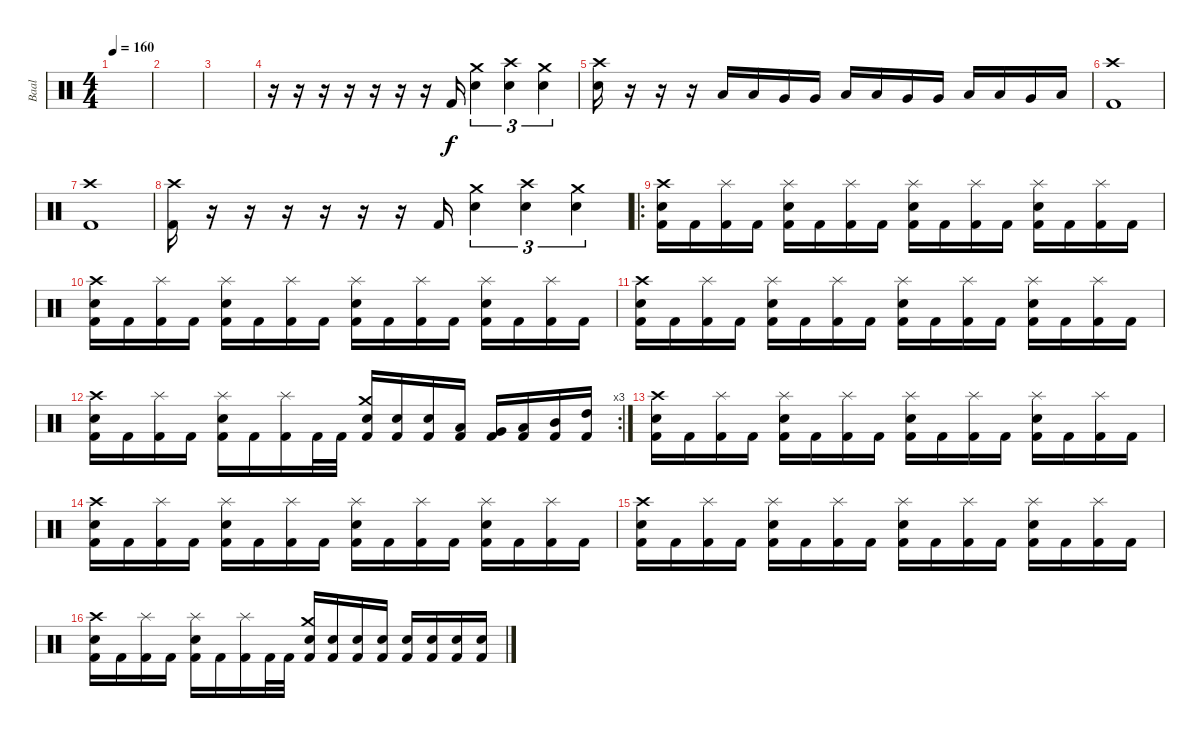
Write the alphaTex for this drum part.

\track ("Baal" "Baal") {instrument percussion}
\staff {score}
\articulation defaults
\ts (4 4)
\tempo 160
\clef neutral
\ks c
|
|
|
r.16 r.16 r.16 r.16 r.16 r.16 r.16 "Kick (hit) 2".16 ("Crash medium (hit)" "Electric Snare (hit)").4{tu (3 2)} ("Crash high (hit)" "Electric Snare (hit)").4{tu (3 2)} ("Crash medium (hit)" "Electric Snare (hit)").4{tu (3 2)} |
("Crash high (hit)" "Electric Snare (hit)").16 r.16 r.16 r.16 "Low Floor Tom (hit)".16 "Low Floor Tom (hit)".16 "Very Low Tom (hit)".16 "Very Low Tom (hit)".16 "Low Tom (hit)".16 "Low Tom (hit)".16 "Very Low Tom (hit)".16 "Very Low Tom (hit)".16 "Low Floor Tom (hit)".16 "Low Floor Tom (hit)".16 "Very Low Tom (hit)".16 "Low Tom (hit)".16 |
("Crash high (hit)" "Kick (hit) 2").1 |
("Crash high (hit)" "Kick (hit) 2").1 |
("Crash high (hit)" "Kick (hit) 2").16 r.16 r.16 r.16 r.16 r.16 r.16 "Kick (hit) 2".16 ("Crash medium (hit)" "Electric Snare (hit)").4{tu (3 2)} ("Crash high (hit)" "Electric Snare (hit)").4{tu (3 2)} ("Crash medium (hit)" "Electric Snare (hit)").4{tu (3 2)} |
\ro
("Crash high (hit)" "Electric Snare (hit)" "Kick (hit) 2").16 "Kick (hit) 2".16 ("Splash (hit)" "Kick (hit) 2").16 "Kick (hit) 2".16 ("Splash (hit)" "Electric Snare (hit)" "Kick (hit) 2").16 "Kick (hit) 2".16 ("Splash (hit)" "Kick (hit) 2").16 "Kick (hit) 2".16 ("Splash (hit)" "Electric Snare (hit)" "Kick (hit) 2").16 "Kick (hit) 2".16 ("Splash (hit)" "Kick (hit) 2").16 "Kick (hit) 2".16 ("Splash (hit)" "Electric Snare (hit)" "Kick (hit) 2").16 "Kick (hit) 2".16 ("Splash (hit)" "Kick (hit) 2").16 "Kick (hit) 2".16 |
("Crash high (hit)" "Electric Snare (hit)" "Kick (hit) 2").16 "Kick (hit) 2".16 ("Splash (hit)" "Kick (hit) 2").16 "Kick (hit) 2".16 ("Splash (hit)" "Electric Snare (hit)" "Kick (hit) 2").16 "Kick (hit) 2".16 ("Splash (hit)" "Kick (hit) 2").16 "Kick (hit) 2".16 ("Splash (hit)" "Electric Snare (hit)" "Kick (hit) 2").16 "Kick (hit) 2".16 ("Splash (hit)" "Kick (hit) 2").16 "Kick (hit) 2".16 ("Splash (hit)" "Electric Snare (hit)" "Kick (hit) 2").16 "Kick (hit) 2".16 ("Splash (hit)" "Kick (hit) 2").16 "Kick (hit) 2".16 |
("Crash high (hit)" "Electric Snare (hit)" "Kick (hit) 2").16 "Kick (hit) 2".16 ("Splash (hit)" "Kick (hit) 2").16 "Kick (hit) 2".16 ("Splash (hit)" "Electric Snare (hit)" "Kick (hit) 2").16 "Kick (hit) 2".16 ("Splash (hit)" "Kick (hit) 2").16 "Kick (hit) 2".16 ("Splash (hit)" "Electric Snare (hit)" "Kick (hit) 2").16 "Kick (hit) 2".16 ("Splash (hit)" "Kick (hit) 2").16 "Kick (hit) 2".16 ("Splash (hit)" "Electric Snare (hit)" "Kick (hit) 2").16 "Kick (hit) 2".16 ("Splash (hit)" "Kick (hit) 2").16 "Kick (hit) 2".16 |
\rc 3
("Crash high (hit)" "Electric Snare (hit)" "Kick (hit) 2").16 "Kick (hit) 2".16 ("Splash (hit)" "Kick (hit) 2").16 "Kick (hit) 2".16 ("Splash (hit)" "Electric Snare (hit)" "Kick (hit) 2").16 "Kick (hit) 2".16 ("Splash (hit)" "Kick (hit) 2").16 "Kick (hit) 2".32 "Kick (hit) 2".32 ("Crash medium (hit)" "Electric Snare (hit)" "Kick (hit) 2").16 ("Electric Snare (hit)" "Kick (hit) 2").16 ("Electric Snare (hit)" "Kick (hit) 2").16 ("Low Floor Tom (hit)" "Kick (hit) 2").16 ("Very Low Tom (hit)" "Kick (hit) 2").16 ("Low Tom (hit)" "Kick (hit) 2").16 ("Mid Tom (hit)" "Kick (hit) 2").16 ("High Tom (hit)" "Kick (hit) 2").16 |
("Crash high (hit)" "Electric Snare (hit)" "Kick (hit) 2").16 "Kick (hit) 2".16 ("Splash (hit)" "Kick (hit) 2").16 "Kick (hit) 2".16 ("Splash (hit)" "Electric Snare (hit)" "Kick (hit) 2").16 "Kick (hit) 2".16 ("Splash (hit)" "Kick (hit) 2").16 "Kick (hit) 2".16 ("Splash (hit)" "Electric Snare (hit)" "Kick (hit) 2").16 "Kick (hit) 2".16 ("Splash (hit)" "Kick (hit) 2").16 "Kick (hit) 2".16 ("Splash (hit)" "Electric Snare (hit)" "Kick (hit) 2").16 "Kick (hit) 2".16 ("Splash (hit)" "Kick (hit) 2").16 "Kick (hit) 2".16 |
("Crash high (hit)" "Electric Snare (hit)" "Kick (hit) 2").16 "Kick (hit) 2".16 ("Splash (hit)" "Kick (hit) 2").16 "Kick (hit) 2".16 ("Splash (hit)" "Electric Snare (hit)" "Kick (hit) 2").16 "Kick (hit) 2".16 ("Splash (hit)" "Kick (hit) 2").16 "Kick (hit) 2".16 ("Splash (hit)" "Electric Snare (hit)" "Kick (hit) 2").16 "Kick (hit) 2".16 ("Splash (hit)" "Kick (hit) 2").16 "Kick (hit) 2".16 ("Splash (hit)" "Electric Snare (hit)" "Kick (hit) 2").16 "Kick (hit) 2".16 ("Splash (hit)" "Kick (hit) 2").16 "Kick (hit) 2".16 |
("Crash high (hit)" "Electric Snare (hit)" "Kick (hit) 2").16 "Kick (hit) 2".16 ("Splash (hit)" "Kick (hit) 2").16 "Kick (hit) 2".16 ("Splash (hit)" "Electric Snare (hit)" "Kick (hit) 2").16 "Kick (hit) 2".16 ("Splash (hit)" "Kick (hit) 2").16 "Kick (hit) 2".16 ("Splash (hit)" "Electric Snare (hit)" "Kick (hit) 2").16 "Kick (hit) 2".16 ("Splash (hit)" "Kick (hit) 2").16 "Kick (hit) 2".16 ("Splash (hit)" "Electric Snare (hit)" "Kick (hit) 2").16 "Kick (hit) 2".16 ("Splash (hit)" "Kick (hit) 2").16 "Kick (hit) 2".16 |
("Crash high (hit)" "Electric Snare (hit)" "Kick (hit) 2").16 "Kick (hit) 2".16 ("Splash (hit)" "Kick (hit) 2").16 "Kick (hit) 2".16 ("Splash (hit)" "Electric Snare (hit)" "Kick (hit) 2").16 "Kick (hit) 2".16 ("Splash (hit)" "Kick (hit) 2").16 "Kick (hit) 2".32 "Kick (hit) 2".32 ("Crash medium (hit)" "Electric Snare (hit)" "Kick (hit) 2").16 ("Electric Snare (hit)" "Kick (hit) 2").16 ("Electric Snare (hit)" "Kick (hit) 2").16 ("Electric Snare (hit)" "Kick (hit) 2").16 ("Electric Snare (hit)" "Kick (hit) 2").16 ("Electric Snare (hit)" "Kick (hit) 2").16 ("Electric Snare (hit)" "Kick (hit) 2").16 ("Electric Snare (hit)" "Kick (hit) 2").16
